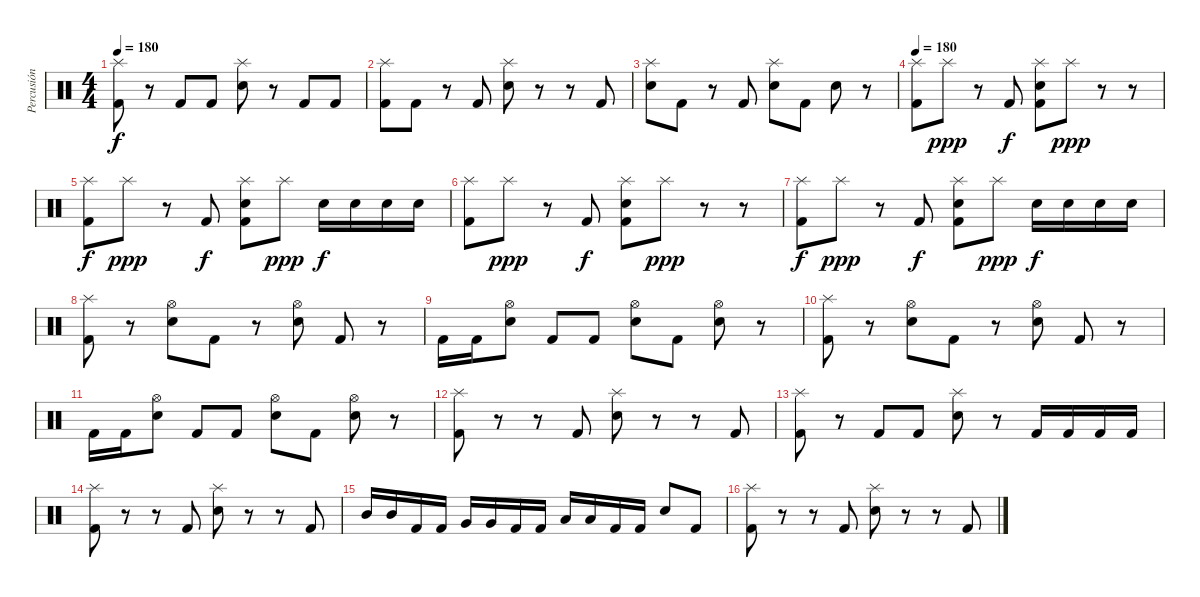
\track ("Percusión" "Percusión") {instrument percussion}
\staff {score}
\articulation defaults
\ts (4 4)
\tempo 180
\clef neutral
\ks c
("Splash (hit)" "Kick (hit) 2").8{dy f} r.8 "Kick (hit) 2".8 "Kick (hit) 2".8 ("Splash (hit)" "Snare (hit) 2").8 r.8 "Kick (hit) 2".8 "Kick (hit) 2".8 |
("Splash (hit)" "Kick (hit) 2").8 "Kick (hit) 2".8 r.8 "Kick (hit) 2".8 ("Splash (hit)" "Snare (hit) 2").8 r.8 r.8 "Kick (hit) 2".8 |
("Splash (hit)" "Snare (hit) 2").8 "Kick (hit) 2".8 r.8 "Kick (hit) 2".8 ("Splash (hit)" "Snare (hit) 2").8 "Kick (hit) 2".8 "Snare (hit) 2".8 r.8 |
\tempo 180
("Splash (hit)" "Kick (hit) 2").8 "Splash (hit)".8{dy ppp} r.8 "Kick (hit) 2".8{dy f} ("Splash (hit)" "Snare (hit) 2" "Kick (hit) 2").8 "Splash (hit)".8{dy ppp} r.8 r.8 |
("Splash (hit)" "Kick (hit) 2").8{dy f} "Splash (hit)".8{dy ppp} r.8 "Kick (hit) 2".8{dy f} ("Splash (hit)" "Snare (hit) 2" "Kick (hit) 2").8 "Splash (hit)".8{dy ppp} "Snare (hit) 2".16{dy f} "Snare (hit) 2".16 "Snare (hit) 2".16 "Snare (hit) 2".16 |
("Splash (hit)" "Kick (hit) 2").8 "Splash (hit)".8{dy ppp} r.8 "Kick (hit) 2".8{dy f} ("Splash (hit)" "Snare (hit) 2" "Kick (hit) 2").8 "Splash (hit)".8{dy ppp} r.8 r.8 |
("Splash (hit)" "Kick (hit) 2").8{dy f} "Splash (hit)".8{dy ppp} r.8 "Kick (hit) 2".8{dy f} ("Splash (hit)" "Snare (hit) 2" "Kick (hit) 2").8 "Splash (hit)".8{dy ppp} "Snare (hit) 2".16{dy f} "Snare (hit) 2".16 "Snare (hit) 2".16 "Snare (hit) 2".16 |
("Splash (hit)" "Kick (hit) 2").8 r.8 ("Hi-Hat (open)" "Snare (hit) 2").8 "Kick (hit) 2".8 r.8 ("Hi-Hat (open)" "Snare (hit) 2").8 "Kick (hit) 2".8 r.8 |
"Kick (hit) 2".16 "Kick (hit) 2".16 ("Hi-Hat (open)" "Snare (hit) 2").8 "Kick (hit) 2".8 "Kick (hit) 2".8 ("Hi-Hat (open)" "Snare (hit) 2").8 "Kick (hit) 2".8 ("Hi-Hat (open)" "Snare (hit) 2").8 r.8 |
("Splash (hit)" "Kick (hit) 2").8 r.8 ("Hi-Hat (open)" "Snare (hit) 2").8 "Kick (hit) 2".8 r.8 ("Hi-Hat (open)" "Snare (hit) 2").8 "Kick (hit) 2".8 r.8 |
"Kick (hit) 2".16 "Kick (hit) 2".16 ("Hi-Hat (open)" "Snare (hit) 2").8 "Kick (hit) 2".8 "Kick (hit) 2".8 ("Hi-Hat (open)" "Snare (hit) 2").8 "Kick (hit) 2".8 ("Hi-Hat (open)" "Snare (hit) 2").8 r.8 |
("Splash (hit)" "Kick (hit) 2").8 r.8 r.8 "Kick (hit) 2".8 ("Splash (hit)" "Snare (hit) 2").8 r.8 r.8 "Kick (hit) 2".8 |
("Splash (hit)" "Kick (hit) 2").8 r.8 "Kick (hit) 2".8 "Kick (hit) 2".8 ("Splash (hit)" "Snare (hit) 2").8 r.8 "Kick (hit) 2".16 "Kick (hit) 2".16 "Kick (hit) 2".16 "Kick (hit) 2".16 |
("Splash (hit)" "Kick (hit) 2").8 r.8 r.8 "Kick (hit) 2".8 ("Splash (hit)" "Snare (hit) 2").8 r.8 r.8 "Kick (hit) 2".8 |
"Mid Tom (hit)".16 "Mid Tom (hit)".16 "Kick (hit) 2".16 "Kick (hit) 2".16 "Very Low Tom (hit)".16 "Very Low Tom (hit)".16 "Kick (hit) 2".16 "Kick (hit) 2".16 "Low Floor Tom (hit)".16 "Low Floor Tom (hit)".16 "Kick (hit) 2".16 "Kick (hit) 2".16 "Snare (hit) 2".8 "Kick (hit) 2".8 |
("Splash (hit)" "Kick (hit) 2").8 r.8 r.8 "Kick (hit) 2".8 ("Splash (hit)" "Snare (hit) 2").8 r.8 r.8 "Kick (hit) 2".8
